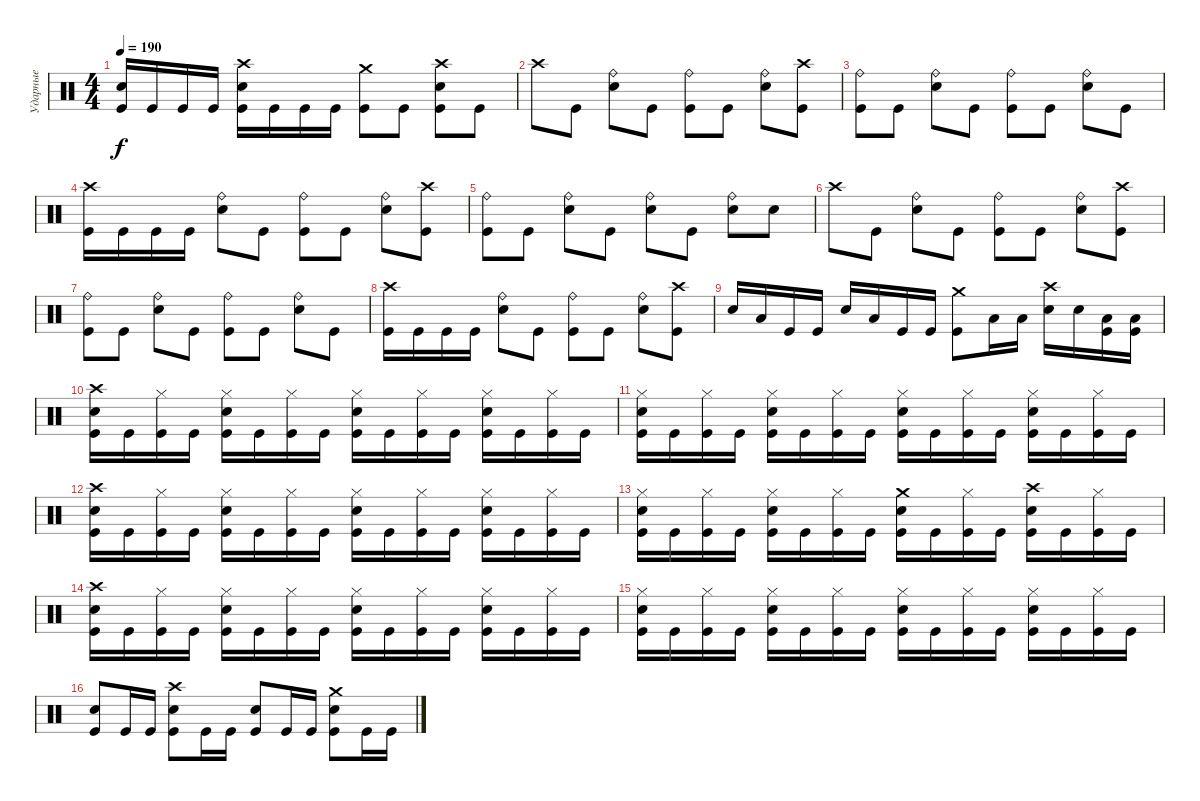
\track ("Ударные" "Ударные") {instrument percussion}
\staff {score}
\articulation defaults
\ts (4 4)
\tempo 190
\clef neutral
\ks c
("Electric Snare (hit)" "Kick (hit)").16{dy f} "Kick (hit)".16 "Kick (hit)".16 "Kick (hit)".16 ("Crash high (hit)" "Electric Snare (hit)" "Kick (hit)").16 "Kick (hit)".16 "Kick (hit)".16 "Kick (hit)".16 ("Crash medium (hit)" "Kick (hit)").8 "Kick (hit)".8 ("Crash high (hit)" "Electric Snare (hit)" "Kick (hit)").8 "Kick (hit)".8 |
"Crash high (hit)".8 "Kick (hit)".8 ("Ride (bell)" "Electric Snare (hit)").8 "Kick (hit)".8 ("Ride (bell)" "Kick (hit)").8 "Kick (hit)".8 ("Ride (bell)" "Electric Snare (hit)").8 ("Crash high (hit)" "Kick (hit)").8 |
("Ride (bell)" "Kick (hit)").8 "Kick (hit)".8 ("Ride (bell)" "Electric Snare (hit)").8 "Kick (hit)".8 ("Ride (bell)" "Kick (hit)").8 "Kick (hit)".8 ("Ride (bell)" "Electric Snare (hit)").8 "Kick (hit)".8 |
("Crash high (hit)" "Kick (hit)").16 "Kick (hit)".16 "Kick (hit)".16 "Kick (hit)".16 ("Ride (bell)" "Electric Snare (hit)").8 "Kick (hit)".8 ("Ride (bell)" "Kick (hit)").8 "Kick (hit)".8 ("Ride (bell)" "Electric Snare (hit)").8 ("Crash high (hit)" "Kick (hit)").8 |
("Ride (bell)" "Kick (hit)").8 "Kick (hit)".8 ("Ride (bell)" "Electric Snare (hit)").8 "Kick (hit)".8 ("Ride (bell)" "Electric Snare (hit)").8 "Kick (hit)".8 ("Ride (bell)" "Electric Snare (hit)").8 "Electric Snare (hit)".8 |
"Crash high (hit)".8 "Kick (hit)".8 ("Ride (bell)" "Electric Snare (hit)").8 "Kick (hit)".8 ("Ride (bell)" "Kick (hit)").8 "Kick (hit)".8 ("Ride (bell)" "Electric Snare (hit)").8 ("Crash high (hit)" "Kick (hit)").8 |
("Ride (bell)" "Kick (hit)").8 "Kick (hit)".8 ("Ride (bell)" "Electric Snare (hit)").8 "Kick (hit)".8 ("Ride (bell)" "Kick (hit)").8 "Kick (hit)".8 ("Ride (bell)" "Electric Snare (hit)").8 "Kick (hit)".8 |
("Crash high (hit)" "Kick (hit)").16 "Kick (hit)".16 "Kick (hit)".16 "Kick (hit)".16 ("Ride (bell)" "Electric Snare (hit)").8 "Kick (hit)".8 ("Ride (bell)" "Kick (hit)").8 "Kick (hit)".8 ("Ride (bell)" "Electric Snare (hit)").8 ("Crash high (hit)" "Kick (hit)").8 |
"Electric Snare (hit)".16 "Low Tom (hit)".16 "Kick (hit)".16 "Kick (hit)".16 "Electric Snare (hit)".16 "Low Tom (hit)".16 "Kick (hit)".16 "Kick (hit)".16 ("Crash medium (hit)" "Kick (hit)").8 "Low Tom (hit)".16 "Low Tom (hit)".16 ("Crash high (hit)" "Electric Snare (hit)").16 "Electric Snare (hit)".16 ("Low Tom (hit)" "Kick (hit)").16 ("Low Tom (hit)" "Kick (hit)").16 |
("Crash high (hit)" "Electric Snare (hit)" "Kick (hit)").16 "Kick (hit)".16 ("Hi-Hat (closed)" "Kick (hit)").16 "Kick (hit)".16 ("Hi-Hat (closed)" "Electric Snare (hit)" "Kick (hit)").16 "Kick (hit)".16 ("Hi-Hat (closed)" "Kick (hit)").16 "Kick (hit)".16 ("Hi-Hat (closed)" "Electric Snare (hit)" "Kick (hit)").16 "Kick (hit)".16 ("Hi-Hat (closed)" "Kick (hit)").16 "Kick (hit)".16 ("Hi-Hat (closed)" "Electric Snare (hit)" "Kick (hit)").16 "Kick (hit)".16 ("Hi-Hat (closed)" "Kick (hit)").16 "Kick (hit)".16 |
("Hi-Hat (closed)" "Electric Snare (hit)" "Kick (hit)").16 "Kick (hit)".16 ("Hi-Hat (closed)" "Kick (hit)").16 "Kick (hit)".16 ("Hi-Hat (closed)" "Electric Snare (hit)" "Kick (hit)").16 "Kick (hit)".16 ("Hi-Hat (closed)" "Kick (hit)").16 "Kick (hit)".16 ("Hi-Hat (closed)" "Electric Snare (hit)" "Kick (hit)").16 "Kick (hit)".16 ("Hi-Hat (closed)" "Kick (hit)").16 "Kick (hit)".16 ("Hi-Hat (closed)" "Electric Snare (hit)" "Kick (hit)").16 "Kick (hit)".16 ("Hi-Hat (closed)" "Kick (hit)").16 "Kick (hit)".16 |
("Crash high (hit)" "Electric Snare (hit)" "Kick (hit)").16 "Kick (hit)".16 ("Hi-Hat (closed)" "Kick (hit)").16 "Kick (hit)".16 ("Hi-Hat (closed)" "Electric Snare (hit)" "Kick (hit)").16 "Kick (hit)".16 ("Hi-Hat (closed)" "Kick (hit)").16 "Kick (hit)".16 ("Hi-Hat (closed)" "Electric Snare (hit)" "Kick (hit)").16 "Kick (hit)".16 ("Hi-Hat (closed)" "Kick (hit)").16 "Kick (hit)".16 ("Hi-Hat (closed)" "Electric Snare (hit)" "Kick (hit)").16 "Kick (hit)".16 ("Hi-Hat (closed)" "Kick (hit)").16 "Kick (hit)".16 |
("Hi-Hat (closed)" "Electric Snare (hit)" "Kick (hit)").16 "Kick (hit)".16 ("Hi-Hat (closed)" "Kick (hit)").16 "Kick (hit)".16 ("Hi-Hat (closed)" "Electric Snare (hit)" "Kick (hit)").16 "Kick (hit)".16 ("Hi-Hat (closed)" "Kick (hit)").16 "Kick (hit)".16 ("Crash medium (hit)" "Electric Snare (hit)" "Kick (hit)").16 "Kick (hit)".16 ("Hi-Hat (closed)" "Kick (hit)").16 "Kick (hit)".16 ("Crash high (hit)" "Electric Snare (hit)" "Kick (hit)").16 "Kick (hit)".16 ("Hi-Hat (closed)" "Kick (hit)").16 "Kick (hit)".16 |
("Crash high (hit)" "Electric Snare (hit)" "Kick (hit)").16 "Kick (hit)".16 ("Hi-Hat (closed)" "Kick (hit)").16 "Kick (hit)".16 ("Hi-Hat (closed)" "Electric Snare (hit)" "Kick (hit)").16 "Kick (hit)".16 ("Hi-Hat (closed)" "Kick (hit)").16 "Kick (hit)".16 ("Hi-Hat (closed)" "Electric Snare (hit)" "Kick (hit)").16 "Kick (hit)".16 ("Hi-Hat (closed)" "Kick (hit)").16 "Kick (hit)".16 ("Hi-Hat (closed)" "Electric Snare (hit)" "Kick (hit)").16 "Kick (hit)".16 ("Hi-Hat (closed)" "Kick (hit)").16 "Kick (hit)".16 |
("Hi-Hat (closed)" "Electric Snare (hit)" "Kick (hit)").16 "Kick (hit)".16 ("Hi-Hat (closed)" "Kick (hit)").16 "Kick (hit)".16 ("Hi-Hat (closed)" "Electric Snare (hit)" "Kick (hit)").16 "Kick (hit)".16 ("Hi-Hat (closed)" "Kick (hit)").16 "Kick (hit)".16 ("Hi-Hat (closed)" "Electric Snare (hit)" "Kick (hit)").16 "Kick (hit)".16 ("Hi-Hat (closed)" "Kick (hit)").16 "Kick (hit)".16 ("Hi-Hat (closed)" "Electric Snare (hit)" "Kick (hit)").16 "Kick (hit)".16 ("Hi-Hat (closed)" "Kick (hit)").16 "Kick (hit)".16 |
("Electric Snare (hit)" "Kick (hit)").8 "Kick (hit)".16 "Kick (hit)".16 ("Crash high (hit)" "Electric Snare (hit)" "Kick (hit)").8 "Kick (hit)".16 "Kick (hit)".16 ("Electric Snare (hit)" "Kick (hit)").8 "Kick (hit)".16 "Kick (hit)".16 ("Crash medium (hit)" "Electric Snare (hit)" "Kick (hit)").8 "Kick (hit)".16 "Kick (hit)".16
